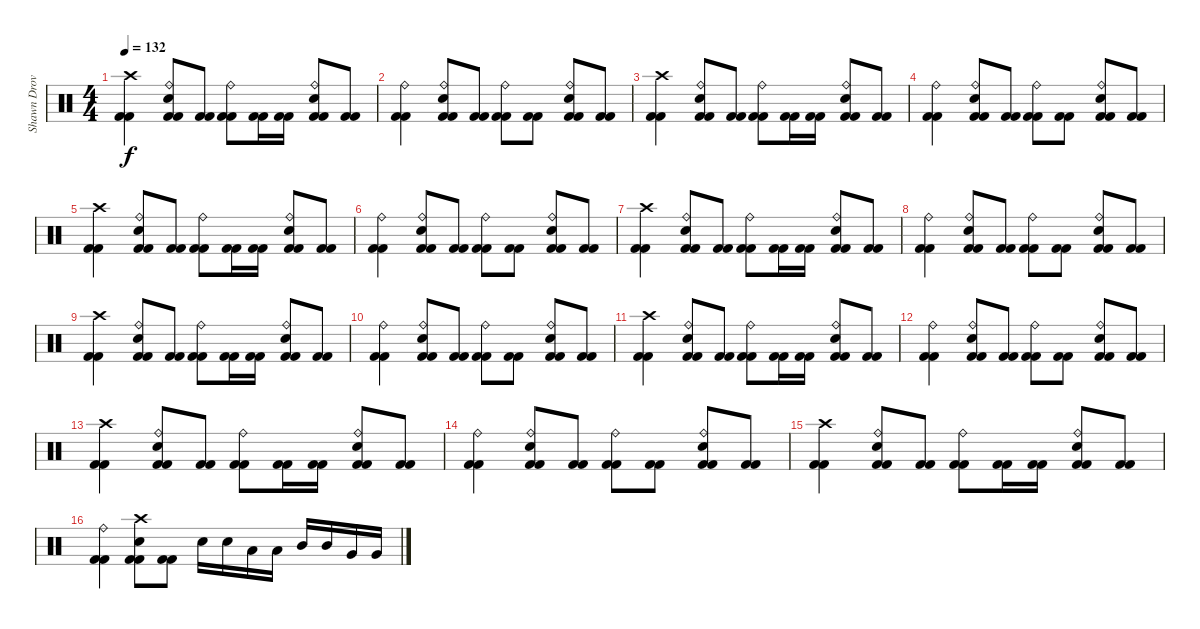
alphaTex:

\track ("Shawn Drover" "Shawn Drov") {instrument percussion}
\staff {score}
\articulation defaults
\ts (4 4)
\tempo 132
\clef neutral
\ks c
("Crash high (hit)" "Kick (hit) 2" "Kick (hit) 2").4{dy f} ("Ride (bell)" "Electric Snare (hit)" "Kick (hit) 2" "Kick (hit) 2").8 ("Kick (hit) 2" "Kick (hit) 2").8 ("Ride (bell)" "Kick (hit) 2" "Kick (hit) 2").8 ("Kick (hit) 2" "Kick (hit) 2").16 ("Kick (hit) 2" "Kick (hit) 2").16 ("Ride (bell)" "Electric Snare (hit)" "Kick (hit) 2" "Kick (hit) 2").8 ("Kick (hit) 2" "Kick (hit) 2").8 |
("Ride (bell)" "Kick (hit) 2" "Kick (hit) 2").4 ("Ride (bell)" "Electric Snare (hit)" "Kick (hit) 2" "Kick (hit) 2").8 ("Kick (hit) 2" "Kick (hit) 2").8 ("Ride (bell)" "Kick (hit) 2" "Kick (hit) 2").8 ("Kick (hit) 2" "Kick (hit) 2").8 ("Ride (bell)" "Electric Snare (hit)" "Kick (hit) 2" "Kick (hit) 2").8 ("Kick (hit) 2" "Kick (hit) 2").8 |
("Crash high (hit)" "Kick (hit) 2" "Kick (hit) 2").4 ("Ride (bell)" "Electric Snare (hit)" "Kick (hit) 2" "Kick (hit) 2").8 ("Kick (hit) 2" "Kick (hit) 2").8 ("Ride (bell)" "Kick (hit) 2" "Kick (hit) 2").8 ("Kick (hit) 2" "Kick (hit) 2").16 ("Kick (hit) 2" "Kick (hit) 2").16 ("Ride (bell)" "Electric Snare (hit)" "Kick (hit) 2" "Kick (hit) 2").8 ("Kick (hit) 2" "Kick (hit) 2").8 |
("Ride (bell)" "Kick (hit) 2" "Kick (hit) 2").4 ("Ride (bell)" "Electric Snare (hit)" "Kick (hit) 2" "Kick (hit) 2").8 ("Kick (hit) 2" "Kick (hit) 2").8 ("Ride (bell)" "Kick (hit) 2" "Kick (hit) 2").8 ("Kick (hit) 2" "Kick (hit) 2").8 ("Ride (bell)" "Electric Snare (hit)" "Kick (hit) 2" "Kick (hit) 2").8 ("Kick (hit) 2" "Kick (hit) 2").8 |
("Crash high (hit)" "Kick (hit) 2" "Kick (hit) 2").4 ("Ride (bell)" "Electric Snare (hit)" "Kick (hit) 2" "Kick (hit) 2").8 ("Kick (hit) 2" "Kick (hit) 2").8 ("Ride (bell)" "Kick (hit) 2" "Kick (hit) 2").8 ("Kick (hit) 2" "Kick (hit) 2").16 ("Kick (hit) 2" "Kick (hit) 2").16 ("Ride (bell)" "Electric Snare (hit)" "Kick (hit) 2" "Kick (hit) 2").8 ("Kick (hit) 2" "Kick (hit) 2").8 |
("Ride (bell)" "Kick (hit) 2" "Kick (hit) 2").4 ("Ride (bell)" "Electric Snare (hit)" "Kick (hit) 2" "Kick (hit) 2").8 ("Kick (hit) 2" "Kick (hit) 2").8 ("Ride (bell)" "Kick (hit) 2" "Kick (hit) 2").8 ("Kick (hit) 2" "Kick (hit) 2").8 ("Ride (bell)" "Electric Snare (hit)" "Kick (hit) 2" "Kick (hit) 2").8 ("Kick (hit) 2" "Kick (hit) 2").8 |
("Crash high (hit)" "Kick (hit) 2" "Kick (hit) 2").4 ("Ride (bell)" "Electric Snare (hit)" "Kick (hit) 2" "Kick (hit) 2").8 ("Kick (hit) 2" "Kick (hit) 2").8 ("Ride (bell)" "Kick (hit) 2" "Kick (hit) 2").8 ("Kick (hit) 2" "Kick (hit) 2").16 ("Kick (hit) 2" "Kick (hit) 2").16 ("Ride (bell)" "Electric Snare (hit)" "Kick (hit) 2" "Kick (hit) 2").8 ("Kick (hit) 2" "Kick (hit) 2").8 |
("Ride (bell)" "Kick (hit) 2" "Kick (hit) 2").4 ("Ride (bell)" "Electric Snare (hit)" "Kick (hit) 2" "Kick (hit) 2").8 ("Kick (hit) 2" "Kick (hit) 2").8 ("Ride (bell)" "Kick (hit) 2" "Kick (hit) 2").8 ("Kick (hit) 2" "Kick (hit) 2").8 ("Ride (bell)" "Electric Snare (hit)" "Kick (hit) 2" "Kick (hit) 2").8 ("Kick (hit) 2" "Kick (hit) 2").8 |
("Crash high (hit)" "Kick (hit) 2" "Kick (hit) 2").4 ("Ride (bell)" "Electric Snare (hit)" "Kick (hit) 2" "Kick (hit) 2").8 ("Kick (hit) 2" "Kick (hit) 2").8 ("Ride (bell)" "Kick (hit) 2" "Kick (hit) 2").8 ("Kick (hit) 2" "Kick (hit) 2").16 ("Kick (hit) 2" "Kick (hit) 2").16 ("Ride (bell)" "Electric Snare (hit)" "Kick (hit) 2" "Kick (hit) 2").8 ("Kick (hit) 2" "Kick (hit) 2").8 |
("Ride (bell)" "Kick (hit) 2" "Kick (hit) 2").4 ("Ride (bell)" "Electric Snare (hit)" "Kick (hit) 2" "Kick (hit) 2").8 ("Kick (hit) 2" "Kick (hit) 2").8 ("Ride (bell)" "Kick (hit) 2" "Kick (hit) 2").8 ("Kick (hit) 2" "Kick (hit) 2").8 ("Ride (bell)" "Electric Snare (hit)" "Kick (hit) 2" "Kick (hit) 2").8 ("Kick (hit) 2" "Kick (hit) 2").8 |
("Crash high (hit)" "Kick (hit) 2" "Kick (hit) 2").4 ("Ride (bell)" "Electric Snare (hit)" "Kick (hit) 2" "Kick (hit) 2").8 ("Kick (hit) 2" "Kick (hit) 2").8 ("Ride (bell)" "Kick (hit) 2" "Kick (hit) 2").8 ("Kick (hit) 2" "Kick (hit) 2").16 ("Kick (hit) 2" "Kick (hit) 2").16 ("Ride (bell)" "Electric Snare (hit)" "Kick (hit) 2" "Kick (hit) 2").8 ("Kick (hit) 2" "Kick (hit) 2").8 |
("Ride (bell)" "Kick (hit) 2" "Kick (hit) 2").4 ("Ride (bell)" "Electric Snare (hit)" "Kick (hit) 2" "Kick (hit) 2").8 ("Kick (hit) 2" "Kick (hit) 2").8 ("Ride (bell)" "Kick (hit) 2" "Kick (hit) 2").8 ("Kick (hit) 2" "Kick (hit) 2").8 ("Ride (bell)" "Electric Snare (hit)" "Kick (hit) 2" "Kick (hit) 2").8 ("Kick (hit) 2" "Kick (hit) 2").8 |
("Crash high (hit)" "Kick (hit) 2" "Kick (hit) 2").4 ("Ride (bell)" "Electric Snare (hit)" "Kick (hit) 2" "Kick (hit) 2").8 ("Kick (hit) 2" "Kick (hit) 2").8 ("Ride (bell)" "Kick (hit) 2" "Kick (hit) 2").8 ("Kick (hit) 2" "Kick (hit) 2").16 ("Kick (hit) 2" "Kick (hit) 2").16 ("Ride (bell)" "Electric Snare (hit)" "Kick (hit) 2" "Kick (hit) 2").8 ("Kick (hit) 2" "Kick (hit) 2").8 |
("Ride (bell)" "Kick (hit) 2" "Kick (hit) 2").4 ("Ride (bell)" "Electric Snare (hit)" "Kick (hit) 2" "Kick (hit) 2").8 ("Kick (hit) 2" "Kick (hit) 2").8 ("Ride (bell)" "Kick (hit) 2" "Kick (hit) 2").8 ("Kick (hit) 2" "Kick (hit) 2").8 ("Ride (bell)" "Electric Snare (hit)" "Kick (hit) 2" "Kick (hit) 2").8 ("Kick (hit) 2" "Kick (hit) 2").8 |
("Crash high (hit)" "Kick (hit) 2" "Kick (hit) 2").4 ("Ride (bell)" "Electric Snare (hit)" "Kick (hit) 2" "Kick (hit) 2").8 ("Kick (hit) 2" "Kick (hit) 2").8 ("Ride (bell)" "Kick (hit) 2" "Kick (hit) 2").8 ("Kick (hit) 2" "Kick (hit) 2").16 ("Kick (hit) 2" "Kick (hit) 2").16 ("Ride (bell)" "Electric Snare (hit)" "Kick (hit) 2" "Kick (hit) 2").8 ("Kick (hit) 2" "Kick (hit) 2").8 |
("Ride (bell)" "Kick (hit) 2" "Kick (hit) 2").4 ("Crash high (hit)" "Electric Snare (hit)" "Kick (hit) 2" "Kick (hit) 2").8 ("Kick (hit) 2" "Kick (hit) 2").8 "Electric Snare (hit)".16 "Electric Snare (hit)".16 "Low Tom (hit)".16 "Low Tom (hit)".16 "Mid Tom (hit)".16 "Mid Tom (hit)".16 "Very Low Tom (hit)".16 "Very Low Tom (hit)".16
